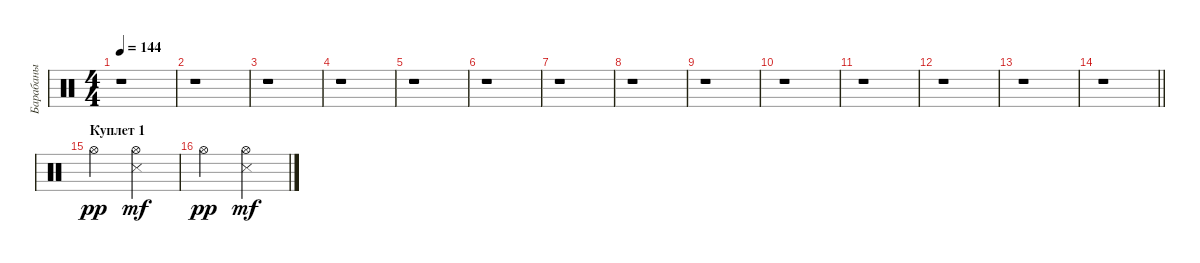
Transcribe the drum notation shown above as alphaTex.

\track ("Барабаны" "Барабаны") {instrument percussion}
\staff {score}
\articulation defaults
\ts (4 4)
\tempo 144
\clef neutral
\ks c
r.1{dy pp} |
r.1 |
r.1 |
r.1 |
r.1 |
r.1 |
r.1 |
r.1 |
r.1 |
r.1 |
r.1 |
r.1 |
r.1 |
\barLineRight lightlight
r.1 |
\section ("" "Куплет 1")
"Hi-Hat (open)".2 ("Hi-Hat (open)" "Snare (side stick) 3").2{dy mf} |
"Hi-Hat (open)".2{dy pp} ("Hi-Hat (open)" "Snare (side stick) 3").2{dy mf}
